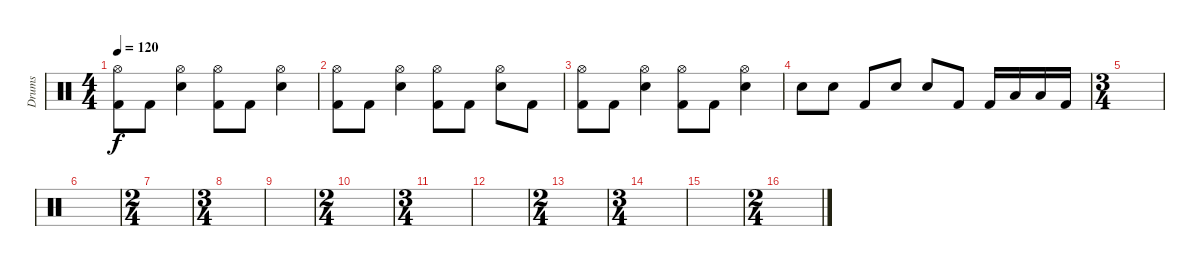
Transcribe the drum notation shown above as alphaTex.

\track ("Drums" "Drums") {instrument percussion}
\staff {score}
\articulation defaults
\ts (4 4)
\tempo 120
\clef neutral
\ks c
("Hi-Hat (open)" "Kick (hit) 2").8{dy f} "Kick (hit) 2".8 ("Hi-Hat (open)" "Snare (hit) 2").4 ("Hi-Hat (open)" "Kick (hit) 2").8 "Kick (hit) 2".8 ("Hi-Hat (open)" "Snare (hit) 2").4 |
("Hi-Hat (open)" "Kick (hit) 2").8 "Kick (hit) 2".8 ("Hi-Hat (open)" "Snare (hit) 2").4 ("Hi-Hat (open)" "Kick (hit) 2").8 "Kick (hit) 2".8 ("Hi-Hat (open)" "Snare (hit) 2").8 "Kick (hit) 2".8 |
("Hi-Hat (open)" "Kick (hit) 2").8 "Kick (hit) 2".8 ("Hi-Hat (open)" "Snare (hit) 2").4 ("Hi-Hat (open)" "Kick (hit) 2").8 "Kick (hit) 2".8 ("Hi-Hat (open)" "Snare (hit) 2").4 |
"Snare (hit) 2".8 "Snare (hit) 2".8 "Kick (hit) 2".8 "Snare (hit) 2".8 "Snare (hit) 2".8 "Kick (hit) 2".8 "Kick (hit) 2".16 "Low Tom (hit)".16 "Low Tom (hit)".16 "Kick (hit) 2".16 |
\ts (3 4)
|
|
\ts (2 4)
|
\ts (3 4)
|
|
\ts (2 4)
|
\ts (3 4)
|
|
\ts (2 4)
|
\ts (3 4)
|
|
\ts (2 4)
